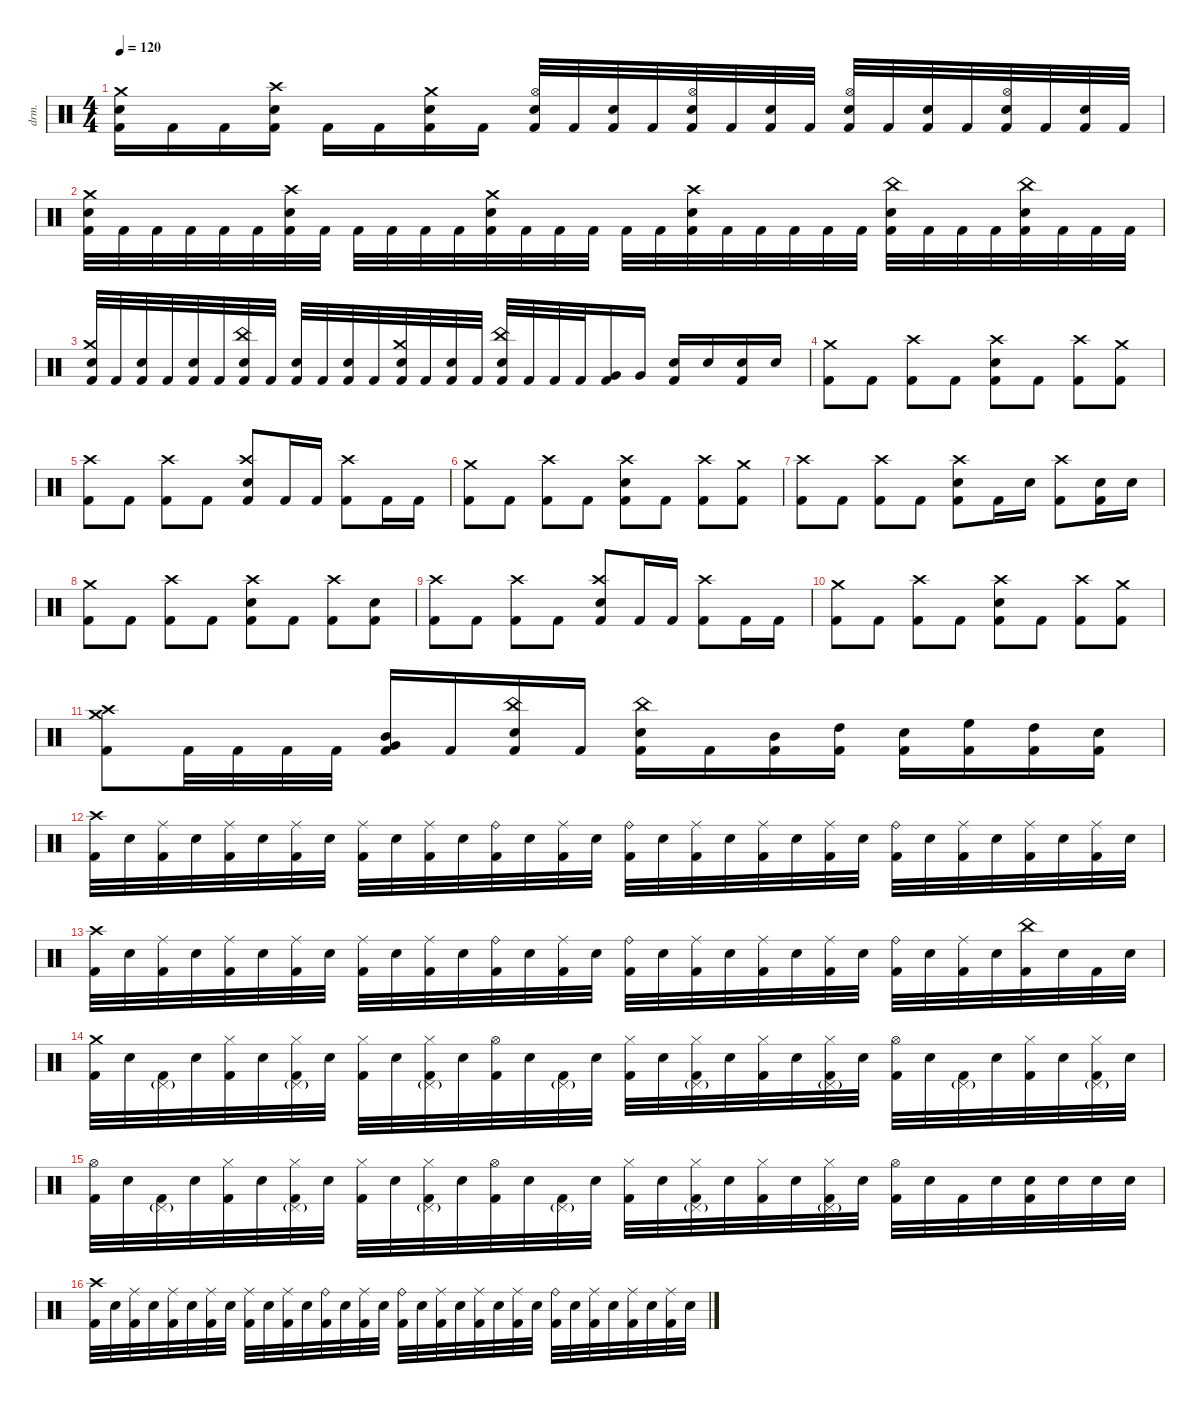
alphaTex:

\defaultSystemsLayout 4
\hideDynamics
\bracketExtendMode nobrackets
\otherSystemsTrackNameOrientation horizontal
\track ("Percussion" "drm.") {instrument percussion}
\staff {score}
\articulation defaults
\ts (4 4)
\tempo 120
\clef neutral
\ks c
("Kick (hit) 2" "Snare (hit) 2" "Crash medium (hit)").16{dy fff beam Down} "Kick (hit) 2".16{beam Down} "Kick (hit) 2".16{beam Down} ("Kick (hit) 2" "Snare (hit) 2" "Crash high (hit)").16{beam Down} "Kick (hit) 2".16{beam Down} "Kick (hit) 2".16{beam Down} ("Kick (hit) 2" "Snare (hit) 2" "Crash medium (hit)").16{beam Down} "Kick (hit) 2".16{beam Down} ("Kick (hit) 2" "Snare (hit) 2" "Hi-Hat (open)").32{beam Up} "Kick (hit) 2".32{beam Up} ("Kick (hit) 2" "Snare (hit) 2").32{beam Up} "Kick (hit) 2".32{beam Up} ("Kick (hit) 2" "Snare (hit) 2" "Hi-Hat (open)").32{beam Up} "Kick (hit) 2".32{beam Up} ("Kick (hit) 2" "Snare (hit) 2").32{beam Up} "Kick (hit) 2".32{beam Up} ("Kick (hit) 2" "Snare (hit) 2" "Hi-Hat (open)").32{beam Up} "Kick (hit) 2".32{beam Up} ("Kick (hit) 2" "Snare (hit) 2").32{beam Up} "Kick (hit) 2".32{beam Up} ("Kick (hit) 2" "Snare (hit) 2" "Hi-Hat (open)").32{beam Up} "Kick (hit) 2".32{beam Up} ("Kick (hit) 2" "Snare (hit) 2").32{beam Up} "Kick (hit) 2".32{beam Up} |
("Kick (hit) 2" "Snare (hit) 2" "Crash medium (hit)").32{beam Down} "Kick (hit) 2".32{beam Down} "Kick (hit) 2".32{beam Down} "Kick (hit) 2".32{beam Down} "Kick (hit) 2".32{beam Down} "Kick (hit) 2".32{beam Down} ("Kick (hit) 2" "Snare (hit) 2" "Crash high (hit)").32{beam Down} "Kick (hit) 2".32{beam Down} "Kick (hit) 2".32{beam Down} "Kick (hit) 2".32{beam Down} "Kick (hit) 2".32{beam Down} "Kick (hit) 2".32{beam Down} ("Kick (hit) 2" "Snare (hit) 2" "Crash medium (hit)").32{beam Down} "Kick (hit) 2".32{beam Down} "Kick (hit) 2".32{beam Down} "Kick (hit) 2".32{beam Down} "Kick (hit) 2".32{beam Down} "Kick (hit) 2".32{beam Down} ("Kick (hit) 2" "Snare (hit) 2" "Crash high (hit)").32{beam Down} "Kick (hit) 2".32{beam Down} "Kick (hit) 2".32{beam Down} "Kick (hit) 2".32{beam Down} "Kick (hit) 2".32{beam Down} "Kick (hit) 2".32{beam Down} ("Kick (hit) 2" "Snare (hit) 2" "China (hit)").32{beam Down} "Kick (hit) 2".32{beam Down} "Kick (hit) 2".32{beam Down} "Kick (hit) 2".32{beam Down} ("Kick (hit) 2" "Snare (hit) 2" "China (hit)").32{beam Down} "Kick (hit) 2".32{beam Down} "Kick (hit) 2".32{beam Down} "Kick (hit) 2".32{beam Down} |
("Kick (hit) 2" "Snare (hit) 2" "Crash medium (hit)").32{beam Up} "Kick (hit) 2".32{beam Up} ("Kick (hit) 2" "Snare (hit) 2").32{beam Up} "Kick (hit) 2".32{beam Up} ("Kick (hit) 2" "Snare (hit) 2").32{beam Up} "Kick (hit) 2".32{beam Up} ("Kick (hit) 2" "Snare (hit) 2" "China (hit)").32{beam Up} "Kick (hit) 2".32{beam Up} ("Kick (hit) 2" "Snare (hit) 2").32{beam Up} "Kick (hit) 2".32{beam Up} ("Kick (hit) 2" "Snare (hit) 2").32{beam Up} "Kick (hit) 2".32{beam Up} ("Kick (hit) 2" "Snare (hit) 2" "Crash medium (hit)").32{beam Up} "Kick (hit) 2".32{beam Up} ("Kick (hit) 2" "Snare (hit) 2").32{beam Up} "Kick (hit) 2".32{beam Up} ("Kick (hit) 2" "Snare (hit) 2" "China (hit)").32{beam Up} "Kick (hit) 2".32{beam Up} "Kick (hit) 2".32{beam Up} "Kick (hit) 2".32{beam Up} ("Kick (hit) 2" "Very Low Tom (hit)").16{beam Up} "Very Low Tom (hit)".16{beam Up} ("Kick (hit) 2" "Snare (hit) 2").16{beam Up} "Snare (hit) 2".16{dy f beam Up} ("Kick (hit) 2" "Snare (hit) 2").16{dy fff beam Up} "Snare (hit) 2".16{beam Up} |
\beaming (8 2 2 2 2)
("Kick (hit) 2" "Crash medium (hit)").8{beam Down} "Kick (hit) 2".8{beam Down} ("Kick (hit) 2" "Crash high (hit)").8{beam Down} "Kick (hit) 2".8{beam Down} ("Kick (hit) 2" "Snare (hit) 2" "Crash high (hit)").8{beam Down} "Kick (hit) 2".8{beam Down} ("Kick (hit) 2" "Crash high (hit)").8{beam Down} ("Kick (hit) 2" "Crash medium (hit)").8{beam Down} |
("Kick (hit) 2" "Crash high (hit)").8{beam Down} "Kick (hit) 2".8{beam Down} ("Kick (hit) 2" "Crash high (hit)").8{beam Down} "Kick (hit) 2".8{beam Down} ("Kick (hit) 2" "Snare (hit) 2" "Crash high (hit)").8{beam Up} "Kick (hit) 2".16{beam Up} "Kick (hit) 2".16{beam Up} ("Kick (hit) 2" "Crash high (hit)").8{beam Down} "Kick (hit) 2".16{beam Down} "Kick (hit) 2".16{beam Down} |
("Kick (hit) 2" "Crash medium (hit)").8{beam Down} "Kick (hit) 2".8{beam Down} ("Kick (hit) 2" "Crash high (hit)").8{beam Down} "Kick (hit) 2".8{beam Down} ("Kick (hit) 2" "Snare (hit) 2" "Crash high (hit)").8{beam Down} "Kick (hit) 2".8{beam Down} ("Kick (hit) 2" "Crash high (hit)").8{beam Down} ("Kick (hit) 2" "Crash medium (hit)").8{beam Down} |
("Kick (hit) 2" "Crash high (hit)").8{beam Down} "Kick (hit) 2".8{beam Down} ("Kick (hit) 2" "Crash high (hit)").8{beam Down} "Kick (hit) 2".8{beam Down} ("Kick (hit) 2" "Snare (hit) 2" "Crash high (hit)").8{beam Down} "Kick (hit) 2".16{beam Down} "Snare (hit) 2".16{beam Down} ("Kick (hit) 2" "Crash high (hit)").8{beam Down} ("Kick (hit) 2" "Snare (hit) 2").16{beam Down} "Snare (hit) 2".16{beam Down} |
("Kick (hit) 2" "Crash medium (hit)").8{beam Down} "Kick (hit) 2".8{beam Down} ("Kick (hit) 2" "Crash high (hit)").8{beam Down} "Kick (hit) 2".8{beam Down} ("Kick (hit) 2" "Snare (hit) 2" "Crash high (hit)").8{beam Down} "Kick (hit) 2".8{beam Down} ("Kick (hit) 2" "Crash high (hit)").8{beam Down} ("Kick (hit) 2" "Snare (hit) 2").8{beam Down} |
("Kick (hit) 2" "Crash high (hit)").8{beam Down} "Kick (hit) 2".8{beam Down} ("Kick (hit) 2" "Crash high (hit)").8{beam Down} "Kick (hit) 2".8{beam Down} ("Kick (hit) 2" "Snare (hit) 2" "Crash high (hit)").8{beam Up} "Kick (hit) 2".16{beam Up} "Kick (hit) 2".16{beam Up} ("Kick (hit) 2" "Crash high (hit)").8{beam Down} "Kick (hit) 2".16{beam Down} "Kick (hit) 2".16{beam Down} |
("Kick (hit) 2" "Crash medium (hit)").8{beam Down} "Kick (hit) 2".8{beam Down} ("Kick (hit) 2" "Crash high (hit)").8{beam Down} "Kick (hit) 2".8{beam Down} ("Kick (hit) 2" "Snare (hit) 2" "Crash high (hit)").8{beam Down} "Kick (hit) 2".8{beam Down} ("Kick (hit) 2" "Crash high (hit)").8{beam Down} ("Kick (hit) 2" "Crash medium (hit)").8{beam Down} |
("Kick (hit) 2" "Crash high (hit)" "Crash medium (hit)").8{beam Down} "Kick (hit) 2".32{beam Down} "Kick (hit) 2".32{beam Down} "Kick (hit) 2".32{beam Down} "Kick (hit) 2".32{beam Down} ("Kick (hit) 2" "Very Low Tom (hit)" "Mid Tom (hit)").16{beam Up} "Kick (hit) 2".16{beam Up} ("Kick (hit) 2" "Snare (hit) 2" "China (hit)").16{beam Up} "Kick (hit) 2".16{beam Up} ("Kick (hit) 2" "Snare (hit) 2" "China (hit)").16{beam Down} "Kick (hit) 2".16{beam Down} ("Kick (hit) 2" "Mid Tom (hit)").16{beam Down} ("Kick (hit) 2" "High Tom (hit)").16{beam Down} ("Kick (hit) 2" "Snare (hit) 2").16{beam Down} ("Kick (hit) 2" "High Floor Tom (hit)").16{beam Down} ("Kick (hit) 2" "High Tom (hit)").16{beam Down} ("Kick (hit) 2" "Snare (hit) 2").16{beam Down} |
("Kick (hit) 2" "Crash high (hit)").32{beam Down} "Snare (hit) 2".32{beam Down} ("Kick (hit) 2" "Ride (middle)").32{beam Down} "Snare (hit) 2".32{beam Down} ("Kick (hit) 2" "Ride (middle)").32{beam Down} "Snare (hit) 2".32{beam Down} ("Kick (hit) 2" "Ride (middle)").32{beam Down} "Snare (hit) 2".32{beam Down} ("Kick (hit) 2" "Ride (middle)").32{beam Down} "Snare (hit) 2".32{beam Down} ("Kick (hit) 2" "Ride (middle)").32{beam Down} "Snare (hit) 2".32{beam Down} ("Kick (hit) 2" "Ride (bell)").32{beam Down} "Snare (hit) 2".32{beam Down} ("Kick (hit) 2" "Ride (middle)").32{beam Down} "Snare (hit) 2".32{beam Down} ("Kick (hit) 2" "Ride (bell)").32{beam Down} "Snare (hit) 2".32{beam Down} ("Kick (hit) 2" "Ride (middle)").32{beam Down} "Snare (hit) 2".32{beam Down} ("Kick (hit) 2" "Ride (middle)").32{beam Down} "Snare (hit) 2".32{beam Down} ("Kick (hit) 2" "Ride (middle)").32{beam Down} "Snare (hit) 2".32{beam Down} ("Kick (hit) 2" "Ride (bell)").32{beam Down} "Snare (hit) 2".32{beam Down} ("Kick (hit) 2" "Ride (middle)").32{beam Down} "Snare (hit) 2".32{beam Down} ("Kick (hit) 2" "Ride (middle)").32{beam Down} "Snare (hit) 2".32{beam Down} ("Kick (hit) 2" "Ride (middle)").32{beam Down} "Snare (hit) 2".32{beam Down} |
("Kick (hit) 2" "Crash high (hit)").32{beam Down} "Snare (hit) 2".32{beam Down} ("Kick (hit) 2" "Ride (middle)").32{beam Down} "Snare (hit) 2".32{beam Down} ("Kick (hit) 2" "Ride (middle)").32{beam Down} "Snare (hit) 2".32{beam Down} ("Kick (hit) 2" "Ride (middle)").32{beam Down} "Snare (hit) 2".32{beam Down} ("Kick (hit) 2" "Ride (middle)").32{beam Down} "Snare (hit) 2".32{beam Down} ("Kick (hit) 2" "Ride (middle)").32{beam Down} "Snare (hit) 2".32{beam Down} ("Kick (hit) 2" "Ride (bell)").32{beam Down} "Snare (hit) 2".32{beam Down} ("Kick (hit) 2" "Ride (middle)").32{beam Down} "Snare (hit) 2".32{beam Down} ("Kick (hit) 2" "Ride (bell)").32{beam Down} "Snare (hit) 2".32{beam Down} ("Kick (hit) 2" "Ride (middle)").32{beam Down} "Snare (hit) 2".32{beam Down} ("Kick (hit) 2" "Ride (middle)").32{beam Down} "Snare (hit) 2".32{beam Down} ("Kick (hit) 2" "Ride (middle)").32{beam Down} "Snare (hit) 2".32{beam Down} ("Kick (hit) 2" "Ride (bell)").32{beam Down} "Snare (hit) 2".32{beam Down} ("Kick (hit) 2" "Ride (middle)").32{beam Down} "Snare (hit) 2".32{beam Down} ("Kick (hit) 2" "China (hit)").32{beam Down} "Snare (hit) 2".32{beam Down} "Kick (hit) 2".32{beam Down} "Snare (hit) 2".32{beam Down} |
("Kick (hit) 2" "Crash medium (hit)").32{beam Down} "Snare (hit) 2".32{beam Down} ("Kick (hit) 2" "Pedal Hi-Hat (hit)"{g}).32{beam Down} "Snare (hit) 2".32{beam Down} ("Kick (hit) 2" "Hi-Hat (closed)").32{beam Down} "Snare (hit) 2".32{beam Down} ("Kick (hit) 2" "Pedal Hi-Hat (hit)"{g} "Hi-Hat (closed)").32{beam Down} "Snare (hit) 2".32{beam Down} ("Kick (hit) 2" "Hi-Hat (closed)").32{beam Down} "Snare (hit) 2".32{beam Down} ("Kick (hit) 2" "Pedal Hi-Hat (hit)"{g} "Hi-Hat (closed)").32{beam Down} "Snare (hit) 2".32{beam Down} ("Kick (hit) 2" "Hi-Hat (open)").32{beam Down} "Snare (hit) 2".32{beam Down} ("Kick (hit) 2" "Pedal Hi-Hat (hit)"{g}).32{beam Down} "Snare (hit) 2".32{beam Down} ("Kick (hit) 2" "Hi-Hat (closed)").32{beam Down} "Snare (hit) 2".32{beam Down} ("Kick (hit) 2" "Pedal Hi-Hat (hit)"{g} "Hi-Hat (closed)").32{beam Down} "Snare (hit) 2".32{beam Down} ("Kick (hit) 2" "Hi-Hat (closed)").32{beam Down} "Snare (hit) 2".32{beam Down} ("Kick (hit) 2" "Pedal Hi-Hat (hit)"{g} "Hi-Hat (closed)").32{beam Down} "Snare (hit) 2".32{beam Down} ("Kick (hit) 2" "Hi-Hat (open)").32{beam Down} "Snare (hit) 2".32{beam Down} ("Kick (hit) 2" "Pedal Hi-Hat (hit)"{g}).32{beam Down} "Snare (hit) 2".32{beam Down} ("Kick (hit) 2" "Hi-Hat (closed)").32{beam Down} "Snare (hit) 2".32{beam Down} ("Kick (hit) 2" "Pedal Hi-Hat (hit)"{g} "Hi-Hat (closed)").32{beam Down} "Snare (hit) 2".32{beam Down} |
("Kick (hit) 2" "Hi-Hat (open)").32{beam Down} "Snare (hit) 2".32{beam Down} ("Kick (hit) 2" "Pedal Hi-Hat (hit)"{g}).32{beam Down} "Snare (hit) 2".32{beam Down} ("Kick (hit) 2" "Hi-Hat (closed)").32{beam Down} "Snare (hit) 2".32{beam Down} ("Kick (hit) 2" "Pedal Hi-Hat (hit)"{g} "Hi-Hat (closed)").32{beam Down} "Snare (hit) 2".32{beam Down} ("Kick (hit) 2" "Hi-Hat (closed)").32{beam Down} "Snare (hit) 2".32{beam Down} ("Kick (hit) 2" "Pedal Hi-Hat (hit)"{g} "Hi-Hat (closed)").32{beam Down} "Snare (hit) 2".32{beam Down} ("Kick (hit) 2" "Hi-Hat (open)").32{beam Down} "Snare (hit) 2".32{beam Down} ("Kick (hit) 2" "Pedal Hi-Hat (hit)"{g}).32{beam Down} "Snare (hit) 2".32{beam Down} ("Kick (hit) 2" "Hi-Hat (closed)").32{beam Down} "Snare (hit) 2".32{beam Down} ("Kick (hit) 2" "Pedal Hi-Hat (hit)"{g} "Hi-Hat (closed)").32{beam Down} "Snare (hit) 2".32{beam Down} ("Kick (hit) 2" "Hi-Hat (closed)").32{beam Down} "Snare (hit) 2".32{beam Down} ("Kick (hit) 2" "Pedal Hi-Hat (hit)"{g} "Hi-Hat (closed)").32{beam Down} "Snare (hit) 2".32{beam Down} ("Kick (hit) 2" "Hi-Hat (open)").32{beam Down} "Snare (hit) 2".32{beam Down} "Kick (hit) 2".32{beam Down} "Snare (hit) 2".32{beam Down} ("Kick (hit) 2" "Snare (hit) 2").32{beam Down} "Snare (hit) 2".32{beam Down} "Snare (hit) 2".32{beam Down} "Snare (hit) 2".32{beam Down} |
("Kick (hit) 2" "Crash high (hit)").32{beam Down} "Snare (hit) 2".32{beam Down} ("Kick (hit) 2" "Ride (middle)").32{beam Down} "Snare (hit) 2".32{beam Down} ("Kick (hit) 2" "Ride (middle)").32{beam Down} "Snare (hit) 2".32{beam Down} ("Kick (hit) 2" "Ride (middle)").32{beam Down} "Snare (hit) 2".32{beam Down} ("Kick (hit) 2" "Ride (middle)").32{beam Down} "Snare (hit) 2".32{beam Down} ("Kick (hit) 2" "Ride (middle)").32{beam Down} "Snare (hit) 2".32{beam Down} ("Kick (hit) 2" "Ride (bell)").32{beam Down} "Snare (hit) 2".32{beam Down} ("Kick (hit) 2" "Ride (middle)").32{beam Down} "Snare (hit) 2".32{beam Down} ("Kick (hit) 2" "Ride (bell)").32{beam Down} "Snare (hit) 2".32{beam Down} ("Kick (hit) 2" "Ride (middle)").32{beam Down} "Snare (hit) 2".32{beam Down} ("Kick (hit) 2" "Ride (middle)").32{beam Down} "Snare (hit) 2".32{beam Down} ("Kick (hit) 2" "Ride (middle)").32{beam Down} "Snare (hit) 2".32{beam Down} ("Kick (hit) 2" "Ride (bell)").32{beam Down} "Snare (hit) 2".32{beam Down} ("Kick (hit) 2" "Ride (middle)").32{beam Down} "Snare (hit) 2".32{beam Down} ("Kick (hit) 2" "Ride (middle)").32{beam Down} "Snare (hit) 2".32{beam Down} ("Kick (hit) 2" "Ride (middle)").32{beam Down} "Snare (hit) 2".32{beam Down}
